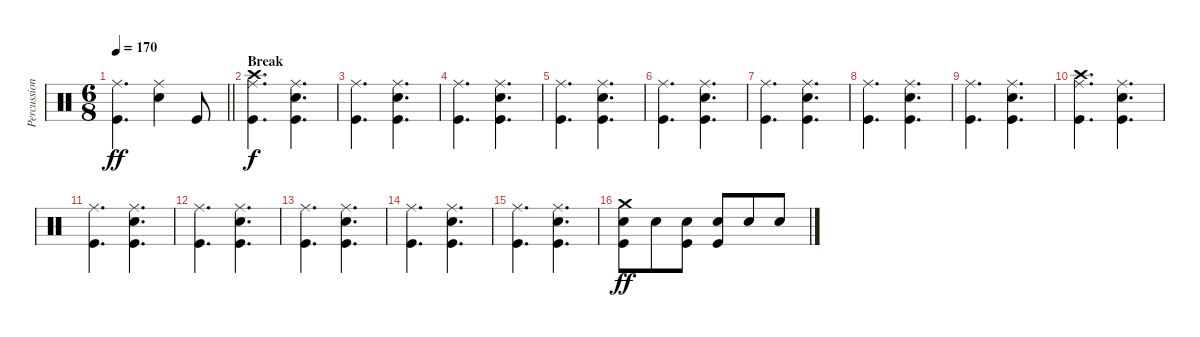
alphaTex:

\track ("Percussion" "Percussion") {instrument percussion}
\staff {score}
\articulation defaults
\ts (6 8)
\tempo 170
\clef neutral
\barLineRight lightlight
\ks c
("Ride (middle)" "Kick (hit)").4{d dy ff} ("Ride (middle)" "Snare (hit) 2").4 "Kick (hit)".8 |
\section ("" "Break")
("Ride (middle)" "Crash high (hit)" "Kick (hit)").4{d dy f} ("Ride (middle)" "Snare (hit) 2" "Kick (hit)").4{d} |
("Ride (middle)" "Kick (hit)").4{d} ("Ride (middle)" "Snare (hit) 2" "Kick (hit)").4{d} |
("Ride (middle)" "Kick (hit)").4{d} ("Ride (middle)" "Snare (hit) 2" "Kick (hit)").4{d} |
("Ride (middle)" "Kick (hit)").4{d} ("Ride (middle)" "Snare (hit) 2" "Kick (hit)").4{d} |
("Ride (middle)" "Kick (hit)").4{d} ("Ride (middle)" "Snare (hit) 2" "Kick (hit)").4{d} |
("Ride (middle)" "Kick (hit)").4{d} ("Ride (middle)" "Snare (hit) 2" "Kick (hit)").4{d} |
("Ride (middle)" "Kick (hit)").4{d} ("Ride (middle)" "Snare (hit) 2" "Kick (hit)").4{d} |
("Ride (middle)" "Kick (hit)").4{d} ("Ride (middle)" "Snare (hit) 2" "Kick (hit)").4{d} |
("Ride (middle)" "Crash high (hit)" "Kick (hit)").4{d} ("Ride (middle)" "Snare (hit) 2" "Kick (hit)").4{d} |
("Ride (middle)" "Kick (hit)").4{d} ("Ride (middle)" "Snare (hit) 2" "Kick (hit)").4{d} |
("Ride (middle)" "Kick (hit)").4{d} ("Ride (middle)" "Snare (hit) 2" "Kick (hit)").4{d} |
("Ride (middle)" "Kick (hit)").4{d} ("Ride (middle)" "Snare (hit) 2" "Kick (hit)").4{d} |
("Ride (middle)" "Kick (hit)").4{d} ("Ride (middle)" "Snare (hit) 2" "Kick (hit)").4{d} |
("Ride (middle)" "Kick (hit)").4{d} ("Ride (middle)" "Snare (hit) 2" "Kick (hit)").4{d} |
("Crash medium (hit)" "Snare (hit) 2" "Kick (hit)").8{dy ff} "Snare (hit) 2".8 ("Snare (hit) 2" "Kick (hit)").8 ("Snare (hit) 2" "Kick (hit)").8 "Snare (hit) 2".8 "Snare (hit) 2".8
